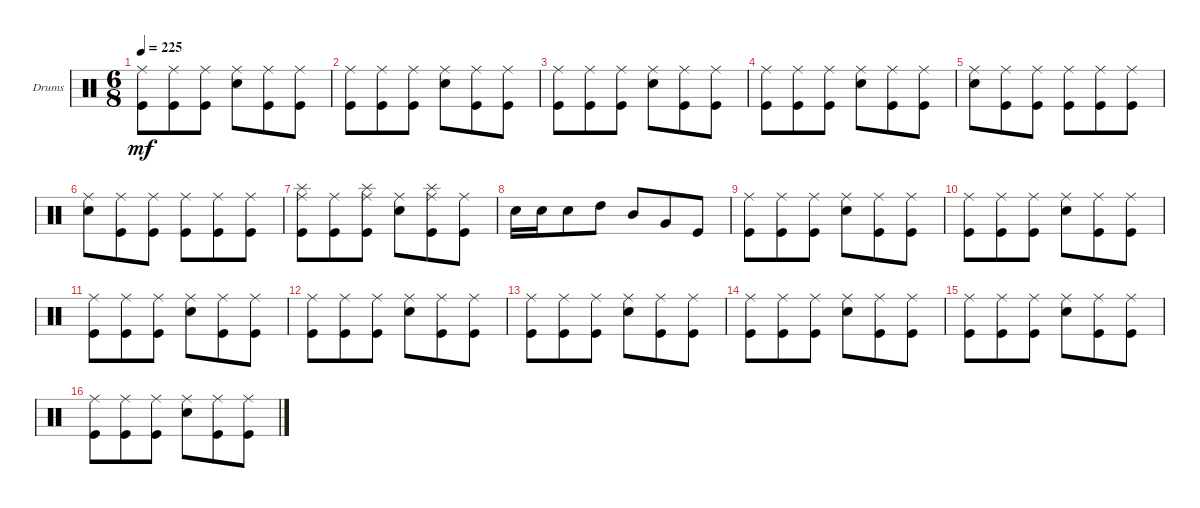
\bracketExtendMode groupsimilarinstruments
\firstSystemTrackNameOrientation horizontal
\otherSystemsTrackNameOrientation horizontal
\track ("Drumkit" "Drums") {instrument percussion}
\staff {score}
\articulation defaults
\ts (6 8)
\tempo 225
\clef neutral
\ks c
("Kick (hit)" "Ride (middle)").8{dy mf} ("Kick (hit)" "Ride (middle)").8 ("Kick (hit)" "Ride (middle)").8 ("Snare (hit) 2" "Ride (middle)").8 ("Kick (hit)" "Ride (middle)").8 ("Kick (hit)" "Ride (middle)").8 |
("Kick (hit)" "Ride (middle)").8 ("Kick (hit)" "Ride (middle)").8 ("Kick (hit)" "Ride (middle)").8 ("Snare (hit) 2" "Ride (middle)").8 ("Kick (hit)" "Ride (middle)").8 ("Kick (hit)" "Ride (middle)").8 |
("Kick (hit)" "Ride (middle)").8 ("Kick (hit)" "Ride (middle)").8 ("Kick (hit)" "Ride (middle)").8 ("Snare (hit) 2" "Ride (middle)").8 ("Kick (hit)" "Ride (middle)").8 ("Kick (hit)" "Ride (middle)").8 |
("Kick (hit)" "Ride (middle)").8 ("Kick (hit)" "Ride (middle)").8 ("Kick (hit)" "Ride (middle)").8 ("Snare (hit) 2" "Ride (middle)").8 ("Kick (hit)" "Ride (middle)").8 ("Kick (hit)" "Ride (middle)").8 |
("Ride (middle)" "Snare (hit) 2").8 ("Kick (hit)" "Ride (middle)").8 ("Kick (hit)" "Ride (middle)").8 ("Ride (middle)" "Kick (hit)").8 ("Kick (hit)" "Ride (middle)").8 ("Kick (hit)" "Ride (middle)").8 |
("Ride (middle)" "Snare (hit) 2").8 ("Kick (hit)" "Ride (middle)").8 ("Kick (hit)" "Ride (middle)").8 ("Ride (middle)" "Kick (hit)").8 ("Kick (hit)" "Ride (middle)").8 ("Kick (hit)" "Ride (middle)").8 |
("Kick (hit)" "Ride (middle)" "Splash (hit)").8 ("Kick (hit)" "Ride (middle)").8 ("Kick (hit)" "Ride (middle)" "Splash (hit)").8 ("Snare (hit) 2" "Ride (middle)").8 ("Kick (hit)" "Ride (middle)" "Splash (hit)").8 ("Kick (hit)" "Ride (middle)").8 |
"Snare (hit) 2".16 "Snare (hit) 2".16 "Snare (hit) 2".8 "High Tom (hit)".8 "Mid Tom (hit)".8 "Very Low Tom (hit)".8 "Kick (hit)".8 |
("Kick (hit)" "Ride (middle)").8 ("Kick (hit)" "Ride (middle)").8 ("Kick (hit)" "Ride (middle)").8 ("Snare (hit) 2" "Ride (middle)").8 ("Kick (hit)" "Ride (middle)").8 ("Kick (hit)" "Ride (middle)").8 |
("Kick (hit)" "Ride (middle)").8 ("Kick (hit)" "Ride (middle)").8 ("Kick (hit)" "Ride (middle)").8 ("Snare (hit) 2" "Ride (middle)").8 ("Kick (hit)" "Ride (middle)").8 ("Kick (hit)" "Ride (middle)").8 |
("Kick (hit)" "Ride (middle)").8 ("Kick (hit)" "Ride (middle)").8 ("Kick (hit)" "Ride (middle)").8 ("Snare (hit) 2" "Ride (middle)").8 ("Kick (hit)" "Ride (middle)").8 ("Kick (hit)" "Ride (middle)").8 |
("Kick (hit)" "Ride (middle)").8 ("Kick (hit)" "Ride (middle)").8 ("Kick (hit)" "Ride (middle)").8 ("Snare (hit) 2" "Ride (middle)").8 ("Kick (hit)" "Ride (middle)").8 ("Kick (hit)" "Ride (middle)").8 |
("Kick (hit)" "Ride (middle)").8 ("Kick (hit)" "Ride (middle)").8 ("Kick (hit)" "Ride (middle)").8 ("Snare (hit) 2" "Ride (middle)").8 ("Kick (hit)" "Ride (middle)").8 ("Kick (hit)" "Ride (middle)").8 |
("Kick (hit)" "Ride (middle)").8 ("Kick (hit)" "Ride (middle)").8 ("Kick (hit)" "Ride (middle)").8 ("Snare (hit) 2" "Ride (middle)").8 ("Kick (hit)" "Ride (middle)").8 ("Kick (hit)" "Ride (middle)").8 |
("Kick (hit)" "Ride (middle)").8 ("Kick (hit)" "Ride (middle)").8 ("Kick (hit)" "Ride (middle)").8 ("Snare (hit) 2" "Ride (middle)").8 ("Kick (hit)" "Ride (middle)").8 ("Kick (hit)" "Ride (middle)").8 |
("Kick (hit)" "Ride (middle)").8 ("Kick (hit)" "Ride (middle)").8 ("Kick (hit)" "Ride (middle)").8 ("Snare (hit) 2" "Ride (middle)").8 ("Kick (hit)" "Ride (middle)").8 ("Kick (hit)" "Ride (middle)").8
